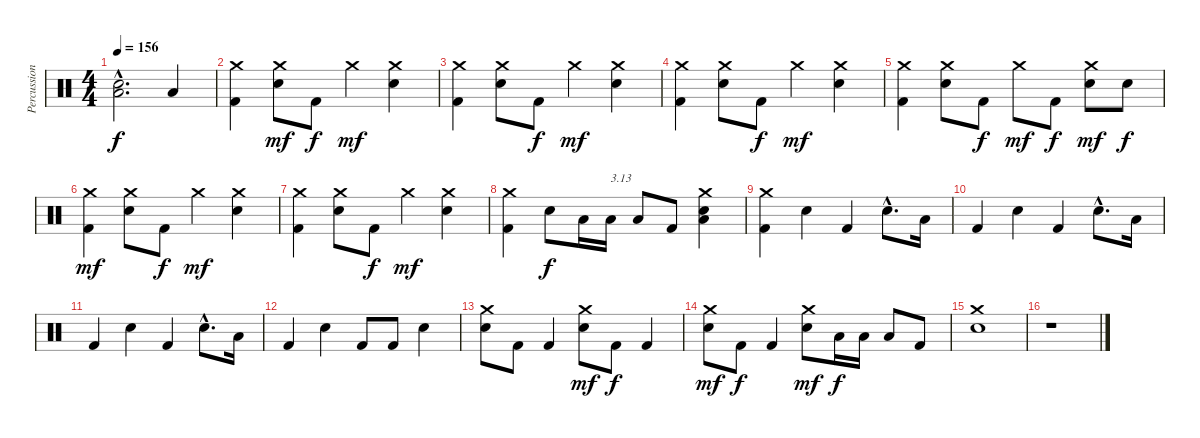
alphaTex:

\track ("Percussions" "Percussion") {instrument percussion}
\staff {score}
\articulation defaults
\ts (4 4)
\tempo 156
\clef neutral
\ks c
("Electric Snare (hit)"{hac} "Low Floor Tom (hit)"{hac}).2{d dy f} "Low Floor Tom (hit)".4 |
("Kick (hit) 2" "Crash medium (hit)").4 ("Electric Snare (hit)" "Crash medium (hit)").8{dy mf} "Kick (hit) 2".8{dy f} "Crash medium (hit)".4{dy mf} ("Electric Snare (hit)" "Crash medium (hit)").4 |
("Kick (hit) 2" "Crash medium (hit)").4 ("Electric Snare (hit)" "Crash medium (hit)").8 "Kick (hit) 2".8{dy f} "Crash medium (hit)".4{dy mf} ("Electric Snare (hit)" "Crash medium (hit)").4 |
("Kick (hit) 2" "Crash medium (hit)").4 ("Electric Snare (hit)" "Crash medium (hit)").8 "Kick (hit) 2".8{dy f} "Crash medium (hit)".4{dy mf} ("Electric Snare (hit)" "Crash medium (hit)").4 |
("Kick (hit) 2" "Crash medium (hit)").4 ("Electric Snare (hit)" "Crash medium (hit)").8 "Kick (hit) 2".8{dy f} "Crash medium (hit)".8{dy mf} "Kick (hit) 2".8{dy f} ("Electric Snare (hit)" "Crash medium (hit)").8{dy mf} "Electric Snare (hit)".8{dy f} |
("Kick (hit) 2" "Crash medium (hit)").4{dy mf} ("Electric Snare (hit)" "Crash medium (hit)").8 "Kick (hit) 2".8{dy f} "Crash medium (hit)".4{dy mf} ("Electric Snare (hit)" "Crash medium (hit)").4 |
("Kick (hit) 2" "Crash medium (hit)").4 ("Electric Snare (hit)" "Crash medium (hit)").8 "Kick (hit) 2".8{dy f} "Crash medium (hit)".4{dy mf} ("Electric Snare (hit)" "Crash medium (hit)").4 |
("Kick (hit) 2" "Crash medium (hit)").4 "Electric Snare (hit)".8{dy f} "Low Floor Tom (hit)".16 "Low Floor Tom (hit)".16{txt "3.13"} "Low Floor Tom (hit)".8 "Kick (hit) 2".8 ("Electric Snare (hit)" "Low Floor Tom (hit)" "Crash medium (hit)").4 |
("Kick (hit) 2" "Crash medium (hit)").4 "Electric Snare (hit)".4 "Kick (hit) 2".4 "Electric Snare (hit)"{hac}.8{d} "Low Floor Tom (hit)".16 |
"Kick (hit) 2".4 "Electric Snare (hit)".4 "Kick (hit) 2".4 "Electric Snare (hit)"{hac}.8{d} "Low Floor Tom (hit)".16 |
"Kick (hit) 2".4 "Electric Snare (hit)".4 "Kick (hit) 2".4 "Electric Snare (hit)"{hac}.8{d} "Low Floor Tom (hit)".16 |
"Kick (hit) 2".4 "Electric Snare (hit)".4 "Kick (hit) 2".8 "Kick (hit) 2".8 "Electric Snare (hit)".4 |
("Electric Snare (hit)" "Crash medium (hit)").8 "Kick (hit) 2".8 "Kick (hit) 2".4 ("Electric Snare (hit)" "Crash medium (hit)").8{dy mf} "Kick (hit) 2".8{dy f} "Kick (hit) 2".4 |
("Electric Snare (hit)" "Crash medium (hit)").8{dy mf} "Kick (hit) 2".8{dy f} "Kick (hit) 2".4 ("Electric Snare (hit)" "Crash medium (hit)").8{dy mf} "Low Floor Tom (hit)".16{dy f} "Low Floor Tom (hit)".16 "Low Floor Tom (hit)".8 "Kick (hit) 2".8 |
("Electric Snare (hit)" "Crash medium (hit)").1 |
r.1
